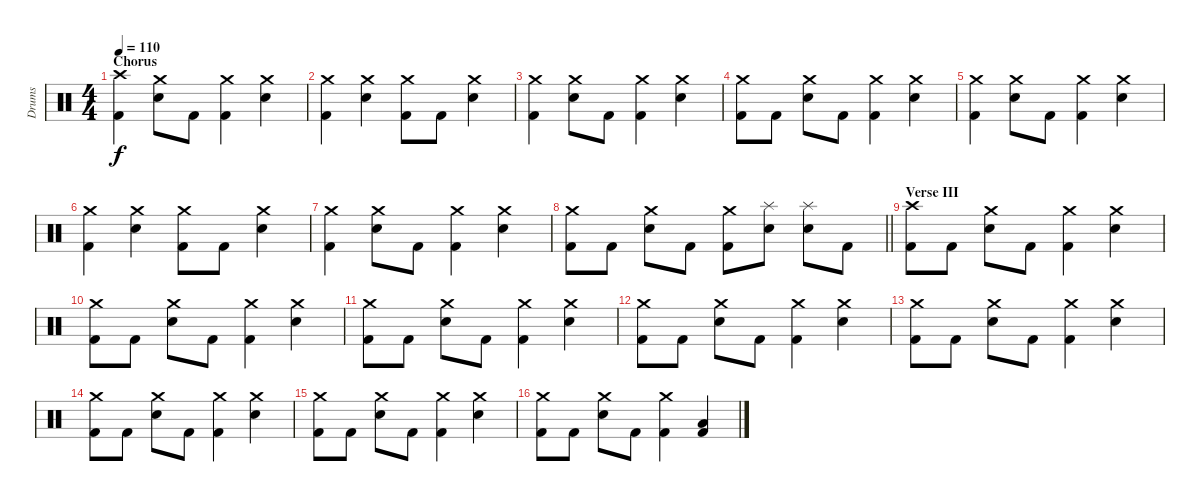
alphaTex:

\track ("Drums" "Drums") {instrument percussion}
\staff {score}
\articulation defaults
\ts (4 4)
\section ("" "Chorus")
\tempo 110
\clef neutral
\ks c
("Crash high (hit)" "Kick (hit) 2").4{dy f} ("Crash medium (hit)" "Snare (hit) 2").8 "Kick (hit) 2".8 ("Crash medium (hit)" "Kick (hit) 2").4 ("Crash medium (hit)" "Snare (hit) 2").4 |
("Crash medium (hit)" "Kick (hit) 2").4 ("Crash medium (hit)" "Snare (hit) 2").4 ("Crash medium (hit)" "Kick (hit) 2").8 "Kick (hit) 2".8 ("Crash medium (hit)" "Snare (hit) 2").4 |
("Crash medium (hit)" "Kick (hit) 2").4 ("Crash medium (hit)" "Snare (hit) 2").8 "Kick (hit) 2".8 ("Crash medium (hit)" "Kick (hit) 2").4 ("Crash medium (hit)" "Snare (hit) 2").4 |
("Crash medium (hit)" "Kick (hit) 2").8 "Kick (hit) 2".8 ("Crash medium (hit)" "Snare (hit) 2").8 "Kick (hit) 2".8 ("Crash medium (hit)" "Kick (hit) 2").4 ("Crash medium (hit)" "Snare (hit) 2").4 |
("Crash medium (hit)" "Kick (hit) 2").4 ("Crash medium (hit)" "Snare (hit) 2").8 "Kick (hit) 2".8 ("Crash medium (hit)" "Kick (hit) 2").4 ("Crash medium (hit)" "Snare (hit) 2").4 |
("Crash medium (hit)" "Kick (hit) 2").4 ("Crash medium (hit)" "Snare (hit) 2").4 ("Crash medium (hit)" "Kick (hit) 2").8 "Kick (hit) 2".8 ("Crash medium (hit)" "Snare (hit) 2").4 |
("Crash medium (hit)" "Kick (hit) 2").4 ("Crash medium (hit)" "Snare (hit) 2").8 "Kick (hit) 2".8 ("Crash medium (hit)" "Kick (hit) 2").4 ("Crash medium (hit)" "Snare (hit) 2").4 |
\barLineRight lightlight
("Crash medium (hit)" "Kick (hit) 2").8 "Kick (hit) 2".8 ("Crash medium (hit)" "Snare (hit) 2").8 "Kick (hit) 2".8 ("Crash medium (hit)" "Kick (hit) 2").8 ("Splash (hit)" "Snare (hit) 2").8 ("Splash (hit)" "Snare (hit) 2").8 "Kick (hit) 2".8 |
\section ("" "Verse III")
("Crash high (hit)" "Kick (hit) 2").8 "Kick (hit) 2".8 ("Crash medium (hit)" "Snare (hit) 2").8 "Kick (hit) 2".8 ("Crash medium (hit)" "Kick (hit) 2").4 ("Crash medium (hit)" "Snare (hit) 2").4 |
("Crash medium (hit)" "Kick (hit) 2").8 "Kick (hit) 2".8 ("Crash medium (hit)" "Snare (hit) 2").8 "Kick (hit) 2".8 ("Crash medium (hit)" "Kick (hit) 2").4 ("Crash medium (hit)" "Snare (hit) 2").4 |
("Crash medium (hit)" "Kick (hit) 2").8 "Kick (hit) 2".8 ("Crash medium (hit)" "Snare (hit) 2").8 "Kick (hit) 2".8 ("Crash medium (hit)" "Kick (hit) 2").4 ("Crash medium (hit)" "Snare (hit) 2").4 |
("Crash medium (hit)" "Kick (hit) 2").8 "Kick (hit) 2".8 ("Crash medium (hit)" "Snare (hit) 2").8 "Kick (hit) 2".8 ("Crash medium (hit)" "Kick (hit) 2").4 ("Crash medium (hit)" "Snare (hit) 2").4 |
("Crash medium (hit)" "Kick (hit) 2").8 "Kick (hit) 2".8 ("Crash medium (hit)" "Snare (hit) 2").8 "Kick (hit) 2".8 ("Crash medium (hit)" "Kick (hit) 2").4 ("Crash medium (hit)" "Snare (hit) 2").4 |
("Crash medium (hit)" "Kick (hit) 2").8 "Kick (hit) 2".8 ("Crash medium (hit)" "Snare (hit) 2").8 "Kick (hit) 2".8 ("Crash medium (hit)" "Kick (hit) 2").4 ("Crash medium (hit)" "Snare (hit) 2").4 |
("Crash medium (hit)" "Kick (hit) 2").8 "Kick (hit) 2".8 ("Crash medium (hit)" "Snare (hit) 2").8 "Kick (hit) 2".8 ("Crash medium (hit)" "Kick (hit) 2").4 ("Crash medium (hit)" "Snare (hit) 2").4 |
("Crash medium (hit)" "Kick (hit) 2").8 "Kick (hit) 2".8 ("Crash medium (hit)" "Snare (hit) 2").8 "Kick (hit) 2".8 ("Crash medium (hit)" "Kick (hit) 2").4 ("Low Tom (hit)" "Kick (hit) 2").4
